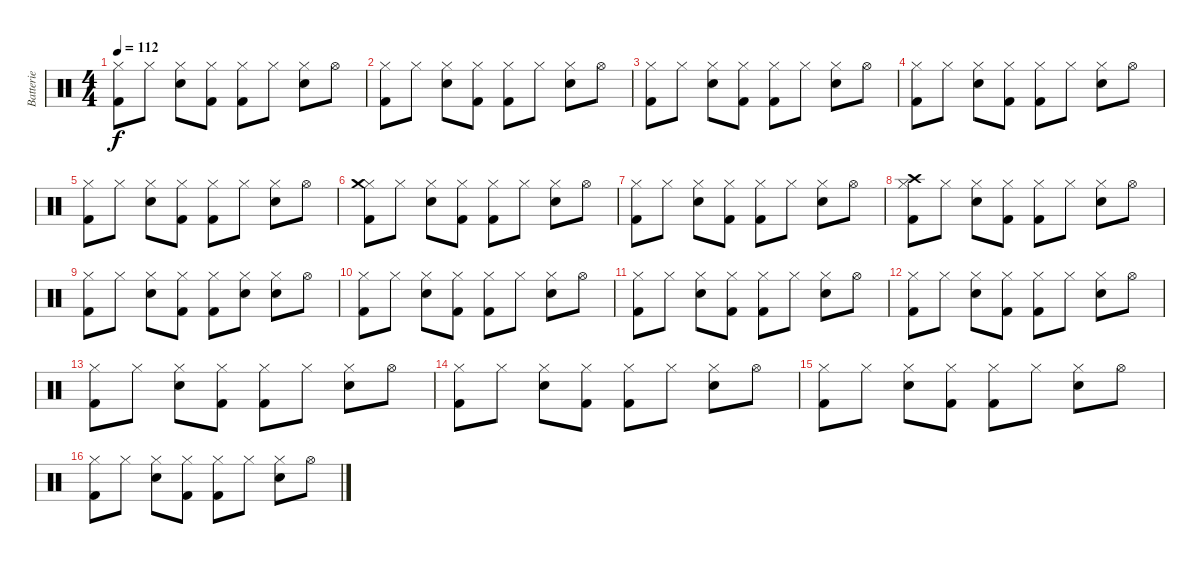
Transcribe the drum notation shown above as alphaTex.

\track ("Batterie" "Batterie") {instrument percussion}
\staff {score}
\articulation defaults
\ts (4 4)
\tempo 112
\clef neutral
\ks c
("Hi-Hat (closed)" "Kick (hit) 2").8{dy f} "Hi-Hat (closed)".8 ("Hi-Hat (closed)" "Electric Snare (hit)").8 ("Hi-Hat (closed)" "Kick (hit) 2").8 ("Hi-Hat (closed)" "Kick (hit) 2").8 "Hi-Hat (closed)".8 ("Hi-Hat (closed)" "Electric Snare (hit)").8 "Hi-Hat (open)".8 |
("Hi-Hat (closed)" "Kick (hit) 2").8 "Hi-Hat (closed)".8 ("Hi-Hat (closed)" "Electric Snare (hit)").8 ("Hi-Hat (closed)" "Kick (hit) 2").8 ("Hi-Hat (closed)" "Kick (hit) 2").8 "Hi-Hat (closed)".8 ("Hi-Hat (closed)" "Electric Snare (hit)").8 "Hi-Hat (open)".8 |
("Hi-Hat (closed)" "Kick (hit) 2").8 "Hi-Hat (closed)".8 ("Hi-Hat (closed)" "Electric Snare (hit)").8 ("Hi-Hat (closed)" "Kick (hit) 2").8 ("Hi-Hat (closed)" "Kick (hit) 2").8 "Hi-Hat (closed)".8 ("Hi-Hat (closed)" "Electric Snare (hit)").8 "Hi-Hat (open)".8 |
("Hi-Hat (closed)" "Kick (hit) 2").8 "Hi-Hat (closed)".8 ("Hi-Hat (closed)" "Electric Snare (hit)").8 ("Hi-Hat (closed)" "Kick (hit) 2").8 ("Hi-Hat (closed)" "Kick (hit) 2").8 "Hi-Hat (closed)".8 ("Hi-Hat (closed)" "Electric Snare (hit)").8 "Hi-Hat (open)".8 |
("Hi-Hat (closed)" "Kick (hit) 2").8 "Hi-Hat (closed)".8 ("Hi-Hat (closed)" "Electric Snare (hit)").8 ("Hi-Hat (closed)" "Kick (hit) 2").8 ("Hi-Hat (closed)" "Kick (hit) 2").8 "Hi-Hat (closed)".8 ("Hi-Hat (closed)" "Electric Snare (hit)").8 "Hi-Hat (open)".8 |
("Hi-Hat (closed)" "Crash medium (hit)" "Kick (hit) 2").8 "Hi-Hat (closed)".8 ("Hi-Hat (closed)" "Electric Snare (hit)").8 ("Hi-Hat (closed)" "Kick (hit) 2").8 ("Hi-Hat (closed)" "Kick (hit) 2").8 "Hi-Hat (closed)".8 ("Hi-Hat (closed)" "Electric Snare (hit)").8 "Hi-Hat (open)".8 |
("Hi-Hat (closed)" "Kick (hit) 2").8 "Hi-Hat (closed)".8 ("Hi-Hat (closed)" "Electric Snare (hit)").8 ("Hi-Hat (closed)" "Kick (hit) 2").8 ("Hi-Hat (closed)" "Kick (hit) 2").8 "Hi-Hat (closed)".8 ("Hi-Hat (closed)" "Electric Snare (hit)").8 "Hi-Hat (open)".8 |
("Hi-Hat (closed)" "Crash high (hit)" "Kick (hit) 2").8 "Hi-Hat (closed)".8 ("Hi-Hat (closed)" "Electric Snare (hit)").8 ("Hi-Hat (closed)" "Kick (hit) 2").8 ("Hi-Hat (closed)" "Kick (hit) 2").8 "Hi-Hat (closed)".8 ("Hi-Hat (closed)" "Electric Snare (hit)").8 "Hi-Hat (open)".8 |
("Hi-Hat (closed)" "Kick (hit) 2").8 "Hi-Hat (closed)".8 ("Hi-Hat (closed)" "Electric Snare (hit)").8 ("Hi-Hat (closed)" "Kick (hit) 2").8 ("Hi-Hat (closed)" "Kick (hit) 2").8 ("Hi-Hat (closed)" "Electric Snare (hit)").8 ("Hi-Hat (closed)" "Electric Snare (hit)").8 "Hi-Hat (open)".8 |
("Hi-Hat (closed)" "Kick (hit) 2").8 "Hi-Hat (closed)".8 ("Hi-Hat (closed)" "Electric Snare (hit)").8 ("Hi-Hat (closed)" "Kick (hit) 2").8 ("Hi-Hat (closed)" "Kick (hit) 2").8 "Hi-Hat (closed)".8 ("Hi-Hat (closed)" "Electric Snare (hit)").8 "Hi-Hat (open)".8 |
("Hi-Hat (closed)" "Kick (hit) 2").8 "Hi-Hat (closed)".8 ("Hi-Hat (closed)" "Electric Snare (hit)").8 ("Hi-Hat (closed)" "Kick (hit) 2").8 ("Hi-Hat (closed)" "Kick (hit) 2").8 "Hi-Hat (closed)".8 ("Hi-Hat (closed)" "Electric Snare (hit)").8 "Hi-Hat (open)".8 |
("Hi-Hat (closed)" "Kick (hit) 2").8 "Hi-Hat (closed)".8 ("Hi-Hat (closed)" "Electric Snare (hit)").8 ("Hi-Hat (closed)" "Kick (hit) 2").8 ("Hi-Hat (closed)" "Kick (hit) 2").8 "Hi-Hat (closed)".8 ("Hi-Hat (closed)" "Electric Snare (hit)").8 "Hi-Hat (open)".8 |
("Hi-Hat (closed)" "Kick (hit) 2").8 "Hi-Hat (closed)".8 ("Hi-Hat (closed)" "Electric Snare (hit)").8 ("Hi-Hat (closed)" "Kick (hit) 2").8 ("Hi-Hat (closed)" "Kick (hit) 2").8 "Hi-Hat (closed)".8 ("Hi-Hat (closed)" "Electric Snare (hit)").8 "Hi-Hat (open)".8 |
("Hi-Hat (closed)" "Kick (hit) 2").8 "Hi-Hat (closed)".8 ("Hi-Hat (closed)" "Electric Snare (hit)").8 ("Hi-Hat (closed)" "Kick (hit) 2").8 ("Hi-Hat (closed)" "Kick (hit) 2").8 "Hi-Hat (closed)".8 ("Hi-Hat (closed)" "Electric Snare (hit)").8 "Hi-Hat (open)".8 |
("Hi-Hat (closed)" "Kick (hit) 2").8 "Hi-Hat (closed)".8 ("Hi-Hat (closed)" "Electric Snare (hit)").8 ("Hi-Hat (closed)" "Kick (hit) 2").8 ("Hi-Hat (closed)" "Kick (hit) 2").8 "Hi-Hat (closed)".8 ("Hi-Hat (closed)" "Electric Snare (hit)").8 "Hi-Hat (open)".8 |
("Hi-Hat (closed)" "Kick (hit) 2").8 "Hi-Hat (closed)".8 ("Hi-Hat (closed)" "Electric Snare (hit)").8 ("Hi-Hat (closed)" "Kick (hit) 2").8 ("Hi-Hat (closed)" "Kick (hit) 2").8 "Hi-Hat (closed)".8 ("Hi-Hat (closed)" "Electric Snare (hit)").8 "Hi-Hat (open)".8
